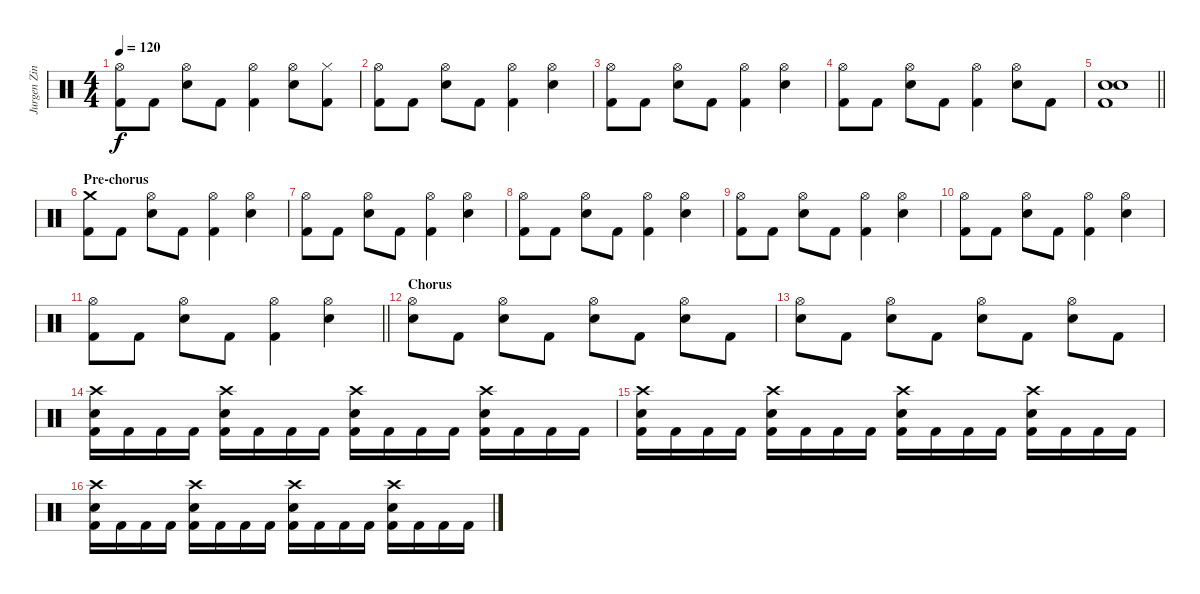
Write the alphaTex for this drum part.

\track ("Jurgen Zing" "Jurgen Zin") {instrument percussion}
\staff {score}
\articulation defaults
\ts (4 4)
\tempo 120
\clef neutral
\ks c
("Hi-Hat (open)" "Kick (hit) 2").8{dy f} "Kick (hit) 2".8 ("Hi-Hat (open)" "Electric Snare (hit)").8 "Kick (hit) 2".8 ("Hi-Hat (open)" "Kick (hit) 2").4 ("Hi-Hat (open)" "Electric Snare (hit)").8 ("Hi-Hat (closed)" "Kick (hit) 2").8 |
("Hi-Hat (open)" "Kick (hit) 2").8 "Kick (hit) 2".8 ("Hi-Hat (open)" "Electric Snare (hit)").8 "Kick (hit) 2".8 ("Hi-Hat (open)" "Kick (hit) 2").4 ("Hi-Hat (open)" "Electric Snare (hit)").4 |
("Hi-Hat (open)" "Kick (hit) 2").8 "Kick (hit) 2".8 ("Hi-Hat (open)" "Electric Snare (hit)").8 "Kick (hit) 2".8 ("Hi-Hat (open)" "Kick (hit) 2").4 ("Hi-Hat (open)" "Electric Snare (hit)").4 |
("Hi-Hat (open)" "Kick (hit) 2").8 "Kick (hit) 2".8 ("Hi-Hat (open)" "Electric Snare (hit)").8 "Kick (hit) 2".8 ("Hi-Hat (open)" "Kick (hit) 2").4 ("Hi-Hat (open)" "Electric Snare (hit)").8 "Kick (hit) 2".8 |
\barLineRight lightlight
("Electric Snare (hit)" "Electric Snare (hit)" "Kick (hit) 2").1 |
\section ("" "Pre-chorus")
("Crash medium (hit)" "Kick (hit) 2").8 "Kick (hit) 2".8 ("Hi-Hat (open)" "Electric Snare (hit)").8 "Kick (hit) 2".8 ("Hi-Hat (open)" "Kick (hit) 2").4 ("Hi-Hat (open)" "Electric Snare (hit)").4 |
("Hi-Hat (open)" "Kick (hit) 2").8 "Kick (hit) 2".8 ("Hi-Hat (open)" "Electric Snare (hit)").8 "Kick (hit) 2".8 ("Hi-Hat (open)" "Kick (hit) 2").4 ("Hi-Hat (open)" "Electric Snare (hit)").4 |
("Hi-Hat (open)" "Kick (hit) 2").8 "Kick (hit) 2".8 ("Hi-Hat (open)" "Electric Snare (hit)").8 "Kick (hit) 2".8 ("Hi-Hat (open)" "Kick (hit) 2").4 ("Hi-Hat (open)" "Electric Snare (hit)").4 |
("Hi-Hat (open)" "Kick (hit) 2").8 "Kick (hit) 2".8 ("Hi-Hat (open)" "Electric Snare (hit)").8 "Kick (hit) 2".8 ("Hi-Hat (open)" "Kick (hit) 2").4 ("Hi-Hat (open)" "Electric Snare (hit)").4 |
("Hi-Hat (open)" "Kick (hit) 2").8 "Kick (hit) 2".8 ("Hi-Hat (open)" "Electric Snare (hit)").8 "Kick (hit) 2".8 ("Hi-Hat (open)" "Kick (hit) 2").4 ("Hi-Hat (open)" "Electric Snare (hit)").4 |
\barLineRight lightlight
("Hi-Hat (open)" "Kick (hit) 2").8 "Kick (hit) 2".8 ("Hi-Hat (open)" "Electric Snare (hit)").8 "Kick (hit) 2".8 ("Hi-Hat (open)" "Kick (hit) 2").4 ("Hi-Hat (open)" "Electric Snare (hit)").4 |
\section ("" "Chorus")
("Hi-Hat (open)" "Electric Snare (hit)").8 "Kick (hit) 2".8 ("Hi-Hat (open)" "Electric Snare (hit)").8 "Kick (hit) 2".8 ("Hi-Hat (open)" "Electric Snare (hit)").8 "Kick (hit) 2".8 ("Hi-Hat (open)" "Electric Snare (hit)").8 "Kick (hit) 2".8 |
("Hi-Hat (open)" "Electric Snare (hit)").8 "Kick (hit) 2".8 ("Hi-Hat (open)" "Electric Snare (hit)").8 "Kick (hit) 2".8 ("Hi-Hat (open)" "Electric Snare (hit)").8 "Kick (hit) 2".8 ("Hi-Hat (open)" "Electric Snare (hit)").8 "Kick (hit) 2".8 |
("Crash high (hit)" "Electric Snare (hit)" "Kick (hit) 2").16 "Kick (hit) 2".16 "Kick (hit) 2".16 "Kick (hit) 2".16 ("Crash high (hit)" "Electric Snare (hit)" "Kick (hit) 2").16 "Kick (hit) 2".16 "Kick (hit) 2".16 "Kick (hit) 2".16 ("Crash high (hit)" "Electric Snare (hit)" "Kick (hit) 2").16 "Kick (hit) 2".16 "Kick (hit) 2".16 "Kick (hit) 2".16 ("Crash high (hit)" "Electric Snare (hit)" "Kick (hit) 2").16 "Kick (hit) 2".16 "Kick (hit) 2".16 "Kick (hit) 2".16 |
("Crash high (hit)" "Electric Snare (hit)" "Kick (hit) 2").16 "Kick (hit) 2".16 "Kick (hit) 2".16 "Kick (hit) 2".16 ("Crash high (hit)" "Electric Snare (hit)" "Kick (hit) 2").16 "Kick (hit) 2".16 "Kick (hit) 2".16 "Kick (hit) 2".16 ("Crash high (hit)" "Electric Snare (hit)" "Kick (hit) 2").16 "Kick (hit) 2".16 "Kick (hit) 2".16 "Kick (hit) 2".16 ("Crash high (hit)" "Electric Snare (hit)" "Kick (hit) 2").16 "Kick (hit) 2".16 "Kick (hit) 2".16 "Kick (hit) 2".16 |
("Crash high (hit)" "Electric Snare (hit)" "Kick (hit) 2").16 "Kick (hit) 2".16 "Kick (hit) 2".16 "Kick (hit) 2".16 ("Crash high (hit)" "Electric Snare (hit)" "Kick (hit) 2").16 "Kick (hit) 2".16 "Kick (hit) 2".16 "Kick (hit) 2".16 ("Crash high (hit)" "Electric Snare (hit)" "Kick (hit) 2").16 "Kick (hit) 2".16 "Kick (hit) 2".16 "Kick (hit) 2".16 ("Crash high (hit)" "Electric Snare (hit)" "Kick (hit) 2").16 "Kick (hit) 2".16 "Kick (hit) 2".16 "Kick (hit) 2".16
